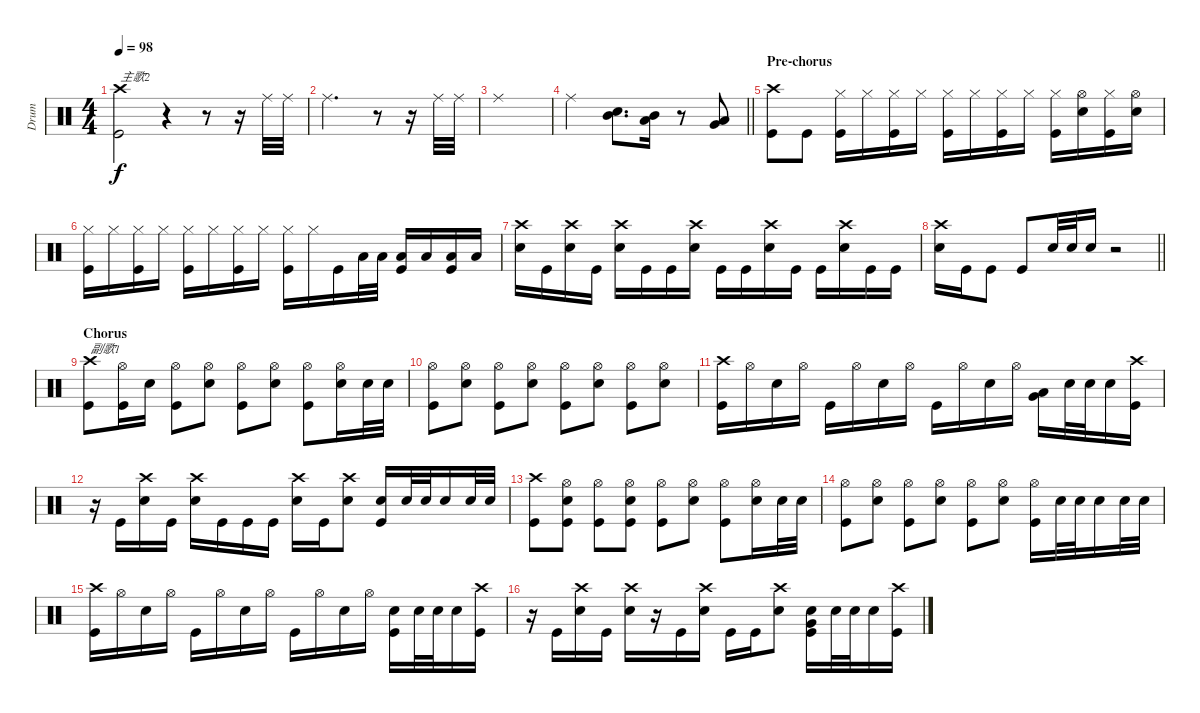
\track ("Drum" "Drum") {instrument percussion}
\staff {score}
\articulation defaults
\ts (4 4)
\tempo 98
\clef neutral
\ks c
("Crash high (hit)" "Kick (hit)").2{txt "主歌2" dy f} r.4 r.8 r.16 "Ride (middle)".32 "Ride (middle)".32 |
"Ride (middle)".2{d} r.8 r.16 "Ride (middle)".32 "Ride (middle)".32 |
"Ride (middle)".1 |
\barLineRight lightlight "Ride (middle)".2
("Mid Tom (hit)" "Snare (hit) 2").8{d} ("Low Tom (hit)" "Mid Tom (hit)").16 r.8 ("Very Low Tom (hit)" "Low Tom (hit)").8 |
\section ("" "Pre-chorus")
("Crash high (hit)" "Kick (hit)").8 "Kick (hit)".8 ("Kick (hit)" "Hi-Hat (closed)").16 "Hi-Hat (closed)".16 ("Kick (hit)" "Hi-Hat (closed)").16 "Hi-Hat (closed)".16 ("Kick (hit)" "Hi-Hat (closed)").16 "Hi-Hat (closed)".16 ("Kick (hit)" "Hi-Hat (closed)").16 "Hi-Hat (closed)".16 ("Kick (hit)" "Hi-Hat (closed)").16 ("Snare (hit) 2" "Hi-Hat (open)").16 ("Kick (hit)" "Hi-Hat (closed)").16 ("Snare (hit) 2" "Hi-Hat (open)").16 |
("Kick (hit)" "Hi-Hat (closed)").16 "Hi-Hat (closed)".16 ("Kick (hit)" "Hi-Hat (closed)").16 "Hi-Hat (closed)".16 ("Kick (hit)" "Hi-Hat (closed)").16 "Hi-Hat (closed)".16 ("Kick (hit)" "Hi-Hat (closed)").16 "Hi-Hat (closed)".16 ("Kick (hit)" "Hi-Hat (closed)").16 "Hi-Hat (closed)".16 "Kick (hit)".16 "Low Tom (hit)".32 "Low Tom (hit)".32 ("Kick (hit)" "Low Floor Tom (hit)").16 "Low Floor Tom (hit)".16 ("Low Floor Tom (hit)" "Kick (hit)").16 "Low Floor Tom (hit)".16 |
("Crash high (hit)" "Snare (hit) 2").16 "Kick (hit)".16 ("Snare (hit) 2" "Crash high (hit)").16 "Kick (hit)".16 ("Crash high (hit)" "Snare (hit) 2").16 "Kick (hit)".16 "Kick (hit)".16 ("Snare (hit) 2" "Crash high (hit)").16 "Kick (hit)".16 "Kick (hit)".16 ("Snare (hit) 2" "Crash high (hit)").16 "Kick (hit)".16 "Kick (hit)".16 ("Snare (hit) 2" "Crash high (hit)").16 "Kick (hit)".16 "Kick (hit)".16 |
\barLineRight lightlight
("Crash high (hit)" "Snare (hit) 2").16 "Kick (hit)".16 "Kick (hit)".8 "Kick (hit)".8 "Snare (hit) 2".32 "Snare (hit) 2".32 "Snare (hit) 2".16 r.2 |
\section ("" "Chorus")
("Crash high (hit)" "Kick (hit)").8{txt "副歌1"} ("Kick (hit)" "Hi-Hat (open)").16 "Snare (hit) 2".16 ("Hi-Hat (open)" "Kick (hit)").8 ("Snare (hit) 2" "Hi-Hat (open)").8 ("Hi-Hat (open)" "Kick (hit)").8 ("Snare (hit) 2" "Hi-Hat (open)").8 ("Hi-Hat (open)" "Kick (hit)").8 ("Snare (hit) 2" "Hi-Hat (open)").16 "Snare (hit) 2".32 "Snare (hit) 2".32 |
("Hi-Hat (open)" "Kick (hit)").8 ("Snare (hit) 2" "Hi-Hat (open)").8 ("Hi-Hat (open)" "Kick (hit)").8 ("Snare (hit) 2" "Hi-Hat (open)").8 ("Hi-Hat (open)" "Kick (hit)").8 ("Snare (hit) 2" "Hi-Hat (open)").8 ("Hi-Hat (open)" "Kick (hit)").8 ("Snare (hit) 2" "Hi-Hat (open)").8 |
("Crash high (hit)" "Kick (hit)").16 "Hi-Hat (open)".16 "Snare (hit) 2".16 "Hi-Hat (open)".16 "Kick (hit)".16 "Hi-Hat (open)".16 "Snare (hit) 2".16 "Hi-Hat (open)".16 "Kick (hit)".16 "Hi-Hat (open)".16 "Snare (hit) 2".16 "Hi-Hat (open)".16 ("Low Tom (hit)" "Very Low Tom (hit)").16 "Snare (hit) 2".32 "Snare (hit) 2".32 "Snare (hit) 2".16 ("Kick (hit)" "Crash high (hit)").16 |
r.16 "Kick (hit)".16 ("Snare (hit) 2" "Crash high (hit)").16 "Kick (hit)".16 ("Snare (hit) 2" "Crash high (hit)").16 "Kick (hit)".16 "Kick (hit)".16 "Kick (hit)".16 ("Snare (hit) 2" "Crash high (hit)").16 "Kick (hit)".16 ("Snare (hit) 2" "Crash high (hit)").8 ("Snare (hit) 2" "Kick (hit)").16 "Snare (hit) 2".32 "Snare (hit) 2".32 "Snare (hit) 2".16 "Snare (hit) 2".32 "Snare (hit) 2".32 |
("Crash high (hit)" "Kick (hit)").8 ("Snare (hit) 2" "Hi-Hat (open)" "Kick (hit)").8 ("Kick (hit)" "Hi-Hat (open)").8 ("Snare (hit) 2" "Hi-Hat (open)" "Kick (hit)").8 ("Kick (hit)" "Hi-Hat (open)").8 ("Snare (hit) 2" "Hi-Hat (open)").8 ("Hi-Hat (open)" "Kick (hit)").8 ("Snare (hit) 2" "Hi-Hat (open)").16 "Snare (hit) 2".32 "Snare (hit) 2".32 |
("Kick (hit)" "Hi-Hat (open)").8 ("Snare (hit) 2" "Hi-Hat (open)").8 ("Kick (hit)" "Hi-Hat (open)").8 ("Snare (hit) 2" "Hi-Hat (open)").8 ("Kick (hit)" "Hi-Hat (open)").8 ("Snare (hit) 2" "Hi-Hat (open)").8 ("Kick (hit)" "Hi-Hat (open)").16 "Snare (hit) 2".32 "Snare (hit) 2".32 "Snare (hit) 2".16 "Snare (hit) 2".32 "Snare (hit) 2".32 |
("Crash high (hit)" "Kick (hit)").16 "Hi-Hat (open)".16 "Snare (hit) 2".16 "Hi-Hat (open)".16 "Kick (hit)".16 "Hi-Hat (open)".16 "Snare (hit) 2".16 "Hi-Hat (open)".16 "Kick (hit)".16 "Hi-Hat (open)".16 "Snare (hit) 2".16 "Hi-Hat (open)".16 ("Snare (hit) 2" "Kick (hit)").16 "Snare (hit) 2".32 "Snare (hit) 2".32 "Snare (hit) 2".16 ("Kick (hit)" "Crash high (hit)").16 |
r.16 "Kick (hit)".16 ("Snare (hit) 2" "Crash high (hit)").16 "Kick (hit)".16 ("Snare (hit) 2" "Crash high (hit)").16 r.16 "Kick (hit)".16 ("Snare (hit) 2" "Crash high (hit)").16 "Kick (hit)".16 "Kick (hit)".16 ("Snare (hit) 2" "Crash high (hit)").8 ("Snare (hit) 2" "Kick (hit)" "Very Low Tom (hit)").16 "Snare (hit) 2".32 "Snare (hit) 2".32 "Snare (hit) 2".16 ("Kick (hit)" "Crash high (hit)").16
